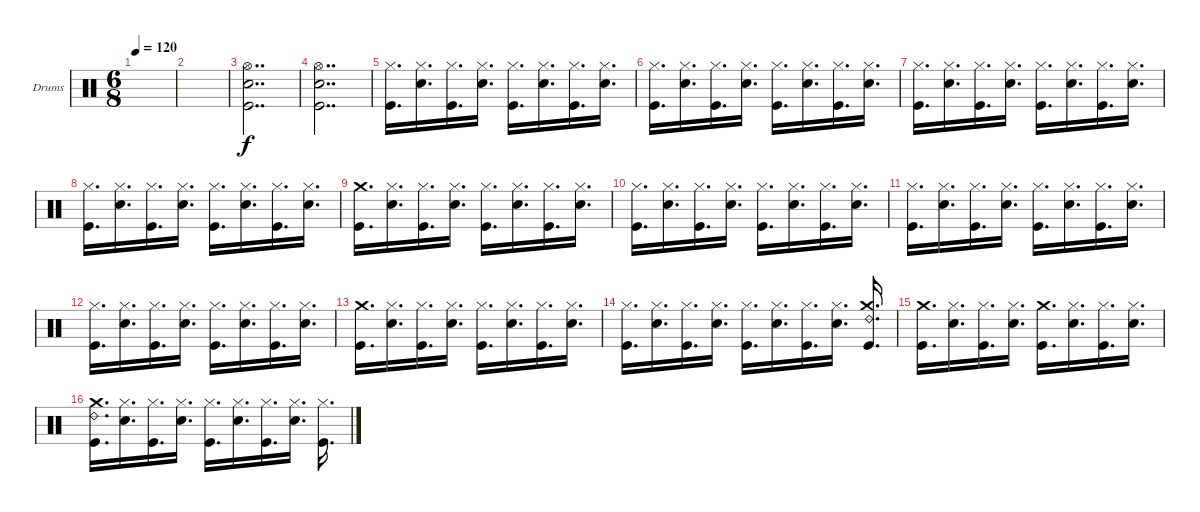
\defaultSystemsLayout 4
\bracketExtendMode groupsimilarinstruments
\firstSystemTrackNameOrientation horizontal
\otherSystemsTrackNameOrientation horizontal
\track ("Drumkit" "Drums") {instrument percussion}
\staff {score}
\articulation defaults
\ts (6 8)
\tempo 120
\clef neutral
\ks c
|
|
("Kick (hit)" "Snare (hit) 2" "Hi-Hat (open)").2{dd} |
("Kick (hit)" "Snare (hit) 2" "Hi-Hat (open)").2{dd} |
("Kick (hit)" "Hi-Hat (closed)").16{d} ("Snare (hit) 2" "Hi-Hat (closed)").16{d} ("Kick (hit)" "Hi-Hat (closed)").16{d} ("Snare (hit) 2" "Hi-Hat (closed)").16{d} ("Kick (hit)" "Hi-Hat (closed)").16{d} ("Snare (hit) 2" "Hi-Hat (closed)").16{d} ("Kick (hit)" "Hi-Hat (closed)").16{d} ("Snare (hit) 2" "Hi-Hat (closed)").16{d} |
("Kick (hit)" "Hi-Hat (closed)").16{d} ("Snare (hit) 2" "Hi-Hat (closed)").16{d} ("Kick (hit)" "Hi-Hat (closed)").16{d} ("Snare (hit) 2" "Hi-Hat (closed)").16{d} ("Kick (hit)" "Hi-Hat (closed)").16{d} ("Snare (hit) 2" "Hi-Hat (closed)").16{d} ("Kick (hit)" "Hi-Hat (closed)").16{d} ("Snare (hit) 2" "Hi-Hat (closed)").16{d} |
("Kick (hit)" "Hi-Hat (closed)").16{d} ("Snare (hit) 2" "Hi-Hat (closed)").16{d} ("Kick (hit)" "Hi-Hat (closed)").16{d} ("Snare (hit) 2" "Hi-Hat (closed)").16{d} ("Kick (hit)" "Hi-Hat (closed)").16{d} ("Snare (hit) 2" "Hi-Hat (closed)").16{d} ("Kick (hit)" "Hi-Hat (closed)").16{d} ("Snare (hit) 2" "Hi-Hat (closed)").16{d} |
("Kick (hit)" "Hi-Hat (closed)").16{d} ("Snare (hit) 2" "Hi-Hat (closed)").16{d} ("Kick (hit)" "Hi-Hat (closed)").16{d} ("Snare (hit) 2" "Hi-Hat (closed)").16{d} ("Kick (hit)" "Hi-Hat (closed)").16{d} ("Snare (hit) 2" "Hi-Hat (closed)").16{d} ("Kick (hit)" "Hi-Hat (closed)").16{d} ("Snare (hit) 2" "Hi-Hat (closed)").16{d} |
("Kick (hit)" "Crash medium (hit)").16{d} ("Snare (hit) 2" "Hi-Hat (closed)").16{d} ("Kick (hit)" "Hi-Hat (closed)").16{d} ("Snare (hit) 2" "Hi-Hat (closed)").16{d} ("Kick (hit)" "Hi-Hat (closed)").16{d} ("Snare (hit) 2" "Hi-Hat (closed)").16{d} ("Kick (hit)" "Hi-Hat (closed)").16{d} ("Snare (hit) 2" "Hi-Hat (closed)").16{d} |
("Kick (hit)" "Hi-Hat (closed)").16{d} ("Snare (hit) 2" "Hi-Hat (closed)").16{d} ("Kick (hit)" "Hi-Hat (closed)").16{d} ("Snare (hit) 2" "Hi-Hat (closed)").16{d} ("Kick (hit)" "Hi-Hat (closed)").16{d} ("Snare (hit) 2" "Hi-Hat (closed)").16{d} ("Kick (hit)" "Hi-Hat (closed)").16{d} ("Snare (hit) 2" "Hi-Hat (closed)").16{d} |
("Kick (hit)" "Hi-Hat (closed)").16{d} ("Snare (hit) 2" "Hi-Hat (closed)").16{d} ("Kick (hit)" "Hi-Hat (closed)").16{d} ("Snare (hit) 2" "Hi-Hat (closed)").16{d} ("Kick (hit)" "Hi-Hat (closed)").16{d} ("Snare (hit) 2" "Hi-Hat (closed)").16{d} ("Kick (hit)" "Hi-Hat (closed)").16{d} ("Snare (hit) 2" "Hi-Hat (closed)").16{d} |
("Kick (hit)" "Hi-Hat (closed)").16{d} ("Snare (hit) 2" "Hi-Hat (closed)").16{d} ("Kick (hit)" "Hi-Hat (closed)").16{d} ("Snare (hit) 2" "Hi-Hat (closed)").16{d} ("Kick (hit)" "Hi-Hat (closed)").16{d} ("Snare (hit) 2" "Hi-Hat (closed)").16{d} ("Kick (hit)" "Hi-Hat (closed)").16{d} ("Snare (hit) 2" "Hi-Hat (closed)").16{d} |
("Kick (hit)" "Crash medium (hit)").16{d} ("Snare (hit) 2" "Hi-Hat (closed)").16{d} ("Kick (hit)" "Hi-Hat (closed)").16{d} ("Snare (hit) 2" "Hi-Hat (closed)").16{d} ("Kick (hit)" "Hi-Hat (closed)").16{d} ("Snare (hit) 2" "Hi-Hat (closed)").16{d} ("Kick (hit)" "Hi-Hat (closed)").16{d} ("Snare (hit) 2" "Hi-Hat (closed)").16{d} |
("Kick (hit)" "Hi-Hat (closed)").16{d} ("Snare (hit) 2" "Hi-Hat (closed)").16{d} ("Kick (hit)" "Hi-Hat (closed)").16{d} ("Snare (hit) 2" "Hi-Hat (closed)").16{d} ("Kick (hit)" "Hi-Hat (closed)").16{d} ("Snare (hit) 2" "Hi-Hat (closed)").16{d} ("Kick (hit)" "Hi-Hat (closed)").16{d} ("Snare (hit) 2" "Hi-Hat (closed)").16{d} ("Kick (hit)" "Crash medium (hit)" "Ride (bell) 2").16{d} |
("Kick (hit)" "Crash medium (hit)").16{d} ("Snare (hit) 2" "Hi-Hat (closed)").16{d} ("Kick (hit)" "Hi-Hat (closed)").16{d} ("Snare (hit) 2" "Hi-Hat (closed)").16{d} ("Kick (hit)" "Crash medium (hit)").16{d} ("Snare (hit) 2" "Hi-Hat (closed)").16{d} ("Kick (hit)" "Hi-Hat (closed)").16{d} ("Snare (hit) 2" "Hi-Hat (closed)").16{d} |
("Kick (hit)" "Crash medium (hit)" "Ride (bell) 2").16{d} ("Snare (hit) 2" "Hi-Hat (closed)").16{d} ("Kick (hit)" "Hi-Hat (closed)").16{d} ("Snare (hit) 2" "Hi-Hat (closed)").16{d} ("Kick (hit)" "Hi-Hat (closed)").16{d} ("Snare (hit) 2" "Hi-Hat (closed)").16{d} ("Kick (hit)" "Hi-Hat (closed)").16{d} ("Snare (hit) 2" "Hi-Hat (closed)").16{d} ("Kick (hit)" "Hi-Hat (closed)").16{d}
